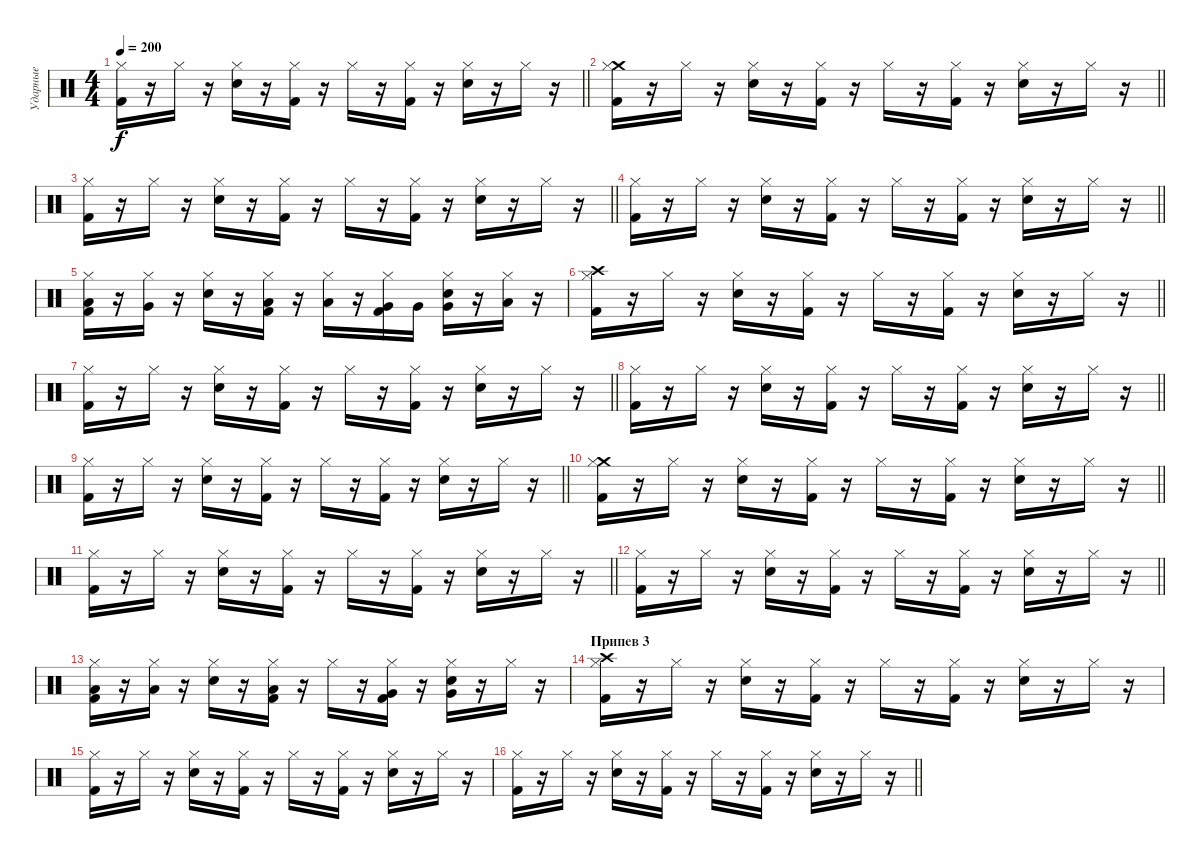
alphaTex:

\track ("Ударные" "Ударные") {instrument percussion}
\staff {score}
\articulation defaults
\ts (4 4)
\tempo 200
\clef neutral
\barLineRight lightlight
\ks c
("Kick (hit) 2" "Hi-Hat (closed)").16{dy f} r.16 "Hi-Hat (closed)".16 r.16 ("Snare (hit) 2" "Hi-Hat (closed)").16 r.16 ("Kick (hit) 2" "Hi-Hat (closed)").16 r.16 "Hi-Hat (closed)".16 r.16 ("Kick (hit) 2" "Hi-Hat (closed)").16 r.16 ("Snare (hit) 2" "Hi-Hat (closed)").16 r.16 "Hi-Hat (closed)".16 r.16 |
\barLineRight lightlight
("Kick (hit) 2" "Crash medium (hit)" "Hi-Hat (closed)").16 r.16 "Hi-Hat (closed)".16 r.16 ("Snare (hit) 2" "Hi-Hat (closed)").16 r.16 ("Kick (hit) 2" "Hi-Hat (closed)").16 r.16 "Hi-Hat (closed)".16 r.16 ("Kick (hit) 2" "Hi-Hat (closed)").16 r.16 ("Snare (hit) 2" "Hi-Hat (closed)").16 r.16 "Hi-Hat (closed)".16 r.16 |
\barLineRight lightlight
("Kick (hit) 2" "Hi-Hat (closed)").16 r.16 "Hi-Hat (closed)".16 r.16 ("Snare (hit) 2" "Hi-Hat (closed)").16 r.16 ("Kick (hit) 2" "Hi-Hat (closed)").16 r.16 "Hi-Hat (closed)".16 r.16 ("Kick (hit) 2" "Hi-Hat (closed)").16 r.16 ("Snare (hit) 2" "Hi-Hat (closed)").16 r.16 "Hi-Hat (closed)".16 r.16 |
\barLineRight lightlight
("Kick (hit) 2" "Hi-Hat (closed)").16 r.16 "Hi-Hat (closed)".16 r.16 ("Snare (hit) 2" "Hi-Hat (closed)").16 r.16 ("Kick (hit) 2" "Hi-Hat (closed)").16 r.16 "Hi-Hat (closed)".16 r.16 ("Kick (hit) 2" "Hi-Hat (closed)").16 r.16 ("Snare (hit) 2" "Hi-Hat (closed)").16 r.16 "Hi-Hat (closed)".16 r.16 |
("Kick (hit) 2" "Low Floor Tom (hit)" "Hi-Hat (closed)").16 r.16 ("Very Low Tom (hit)" "Hi-Hat (closed)").16 r.16 ("Snare (hit) 2" "Hi-Hat (closed)").16 r.16 ("Kick (hit) 2" "Low Floor Tom (hit)" "Hi-Hat (closed)").16 r.16 ("Low Floor Tom (hit)" "Hi-Hat (closed)").16 r.16 ("Kick (hit) 2" "Very Low Tom (hit)" "Hi-Hat (closed)").16 "Very Low Tom (hit)".16 ("Snare (hit) 2" "Very Low Tom (hit)" "Hi-Hat (closed)").16 r.16 ("Low Tom (hit)" "Hi-Hat (closed)").16 r.16 |
\barLineRight lightlight
("Kick (hit) 2" "Crash high (hit)" "Hi-Hat (closed)").16 r.16 "Hi-Hat (closed)".16 r.16 ("Snare (hit) 2" "Hi-Hat (closed)").16 r.16 ("Kick (hit) 2" "Hi-Hat (closed)").16 r.16 "Hi-Hat (closed)".16 r.16 ("Kick (hit) 2" "Hi-Hat (closed)").16 r.16 ("Snare (hit) 2" "Hi-Hat (closed)").16 r.16 "Hi-Hat (closed)".16 r.16 |
\barLineRight lightlight
("Kick (hit) 2" "Hi-Hat (closed)").16 r.16 "Hi-Hat (closed)".16 r.16 ("Snare (hit) 2" "Hi-Hat (closed)").16 r.16 ("Kick (hit) 2" "Hi-Hat (closed)").16 r.16 "Hi-Hat (closed)".16 r.16 ("Kick (hit) 2" "Hi-Hat (closed)").16 r.16 ("Snare (hit) 2" "Hi-Hat (closed)").16 r.16 "Hi-Hat (closed)".16 r.16 |
\barLineRight lightlight
("Kick (hit) 2" "Hi-Hat (closed)").16 r.16 "Hi-Hat (closed)".16 r.16 ("Snare (hit) 2" "Hi-Hat (closed)").16 r.16 ("Kick (hit) 2" "Hi-Hat (closed)").16 r.16 "Hi-Hat (closed)".16 r.16 ("Kick (hit) 2" "Hi-Hat (closed)").16 r.16 ("Snare (hit) 2" "Hi-Hat (closed)").16 r.16 "Hi-Hat (closed)".16 r.16 |
\barLineRight lightlight
("Kick (hit) 2" "Hi-Hat (closed)").16 r.16 "Hi-Hat (closed)".16 r.16 ("Snare (hit) 2" "Hi-Hat (closed)").16 r.16 ("Kick (hit) 2" "Hi-Hat (closed)").16 r.16 "Hi-Hat (closed)".16 r.16 ("Kick (hit) 2" "Hi-Hat (closed)").16 r.16 ("Snare (hit) 2" "Hi-Hat (closed)").16 r.16 "Hi-Hat (closed)".16 r.16 |
\barLineRight lightlight
("Kick (hit) 2" "Crash medium (hit)" "Hi-Hat (closed)").16 r.16 "Hi-Hat (closed)".16 r.16 ("Snare (hit) 2" "Hi-Hat (closed)").16 r.16 ("Kick (hit) 2" "Hi-Hat (closed)").16 r.16 "Hi-Hat (closed)".16 r.16 ("Kick (hit) 2" "Hi-Hat (closed)").16 r.16 ("Snare (hit) 2" "Hi-Hat (closed)").16 r.16 "Hi-Hat (closed)".16 r.16 |
\barLineRight lightlight
("Kick (hit) 2" "Hi-Hat (closed)").16 r.16 "Hi-Hat (closed)".16 r.16 ("Snare (hit) 2" "Hi-Hat (closed)").16 r.16 ("Kick (hit) 2" "Hi-Hat (closed)").16 r.16 "Hi-Hat (closed)".16 r.16 ("Kick (hit) 2" "Hi-Hat (closed)").16 r.16 ("Snare (hit) 2" "Hi-Hat (closed)").16 r.16 "Hi-Hat (closed)".16 r.16 |
\barLineRight lightlight
("Kick (hit) 2" "Hi-Hat (closed)").16 r.16 "Hi-Hat (closed)".16 r.16 ("Snare (hit) 2" "Hi-Hat (closed)").16 r.16 ("Kick (hit) 2" "Hi-Hat (closed)").16 r.16 "Hi-Hat (closed)".16 r.16 ("Kick (hit) 2" "Hi-Hat (closed)").16 r.16 ("Snare (hit) 2" "Hi-Hat (closed)").16 r.16 "Hi-Hat (closed)".16 r.16 |
("Kick (hit) 2" "Low Floor Tom (hit)" "Hi-Hat (closed)").16 r.16 ("Low Floor Tom (hit)" "Hi-Hat (closed)").16 r.16 ("Snare (hit) 2" "Hi-Hat (closed)").16 r.16 ("Kick (hit) 2" "Low Floor Tom (hit)" "Hi-Hat (closed)").16 r.16 "Hi-Hat (closed)".16 r.16 ("Kick (hit) 2" "Very Low Tom (hit)" "Hi-Hat (closed)").16 r.16 ("Snare (hit) 2" "Very Low Tom (hit)" "Hi-Hat (closed)").16 r.16 "Hi-Hat (closed)".16 r.16 |
\section ("" "Припев 3")
("Kick (hit) 2" "Crash high (hit)" "Hi-Hat (closed)").16 r.16 "Hi-Hat (closed)".16 r.16 ("Snare (hit) 2" "Hi-Hat (closed)").16 r.16 ("Kick (hit) 2" "Hi-Hat (closed)").16 r.16 "Hi-Hat (closed)".16 r.16 ("Kick (hit) 2" "Hi-Hat (closed)").16 r.16 ("Snare (hit) 2" "Hi-Hat (closed)").16 r.16 "Hi-Hat (closed)".16 r.16 |
("Kick (hit) 2" "Hi-Hat (closed)").16 r.16 "Hi-Hat (closed)".16 r.16 ("Snare (hit) 2" "Hi-Hat (closed)").16 r.16 ("Kick (hit) 2" "Hi-Hat (closed)").16 r.16 "Hi-Hat (closed)".16 r.16 ("Kick (hit) 2" "Hi-Hat (closed)").16 r.16 ("Snare (hit) 2" "Hi-Hat (closed)").16 r.16 "Hi-Hat (closed)".16 r.16 |
\barLineRight lightlight
("Kick (hit) 2" "Hi-Hat (closed)").16 r.16 "Hi-Hat (closed)".16 r.16 ("Snare (hit) 2" "Hi-Hat (closed)").16 r.16 ("Kick (hit) 2" "Hi-Hat (closed)").16 r.16 "Hi-Hat (closed)".16 r.16 ("Kick (hit) 2" "Hi-Hat (closed)").16 r.16 ("Snare (hit) 2" "Hi-Hat (closed)").16 r.16 "Hi-Hat (closed)".16 r.16
